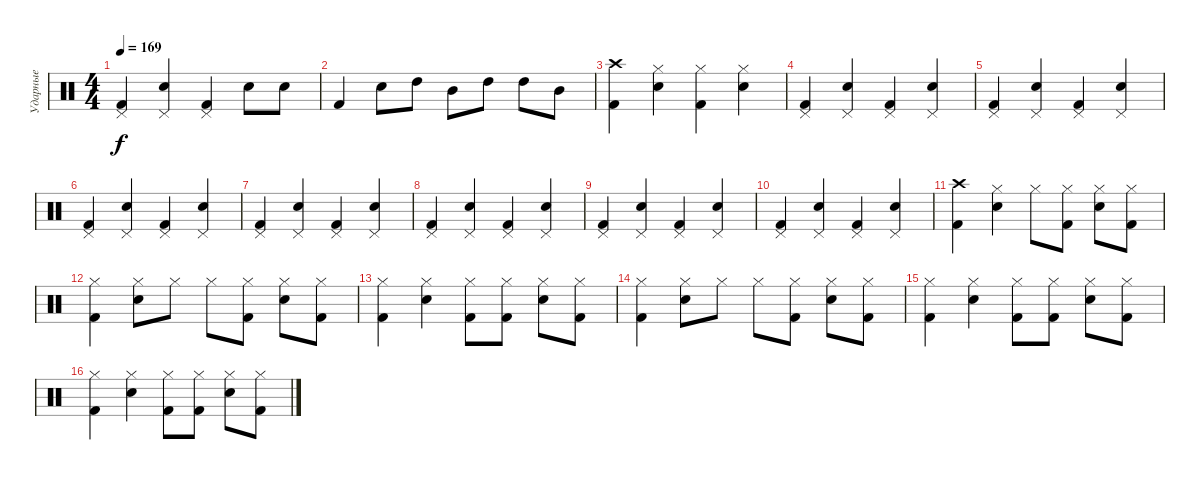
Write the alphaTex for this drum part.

\track ("Ударные" "Ударные") {instrument percussion}
\staff {score}
\articulation defaults
\ts (4 4)
\tempo 169
\clef neutral
\ks c
("Kick (hit) 2" "Pedal Hi-Hat (hit)").4{dy f} ("Electric Snare (hit)" "Pedal Hi-Hat (hit)").4 ("Kick (hit) 2" "Pedal Hi-Hat (hit)").4 "Electric Snare (hit)".8 "Electric Snare (hit)".8 |
"Kick (hit) 2".4 "Electric Snare (hit)".8 "High Tom (hit)".8 "Mid Tom (hit)".8 "High Tom (hit)".8 "High Tom (hit)".8 "Mid Tom (hit)".8 |
("Kick (hit) 2" "Crash high (hit)").4 ("Electric Snare (hit)" "Hi-Hat (closed)").4 ("Kick (hit) 2" "Hi-Hat (closed)").4 ("Electric Snare (hit)" "Hi-Hat (closed)").4 |
("Kick (hit) 2" "Pedal Hi-Hat (hit)").4 ("Electric Snare (hit)" "Pedal Hi-Hat (hit)").4 ("Kick (hit) 2" "Pedal Hi-Hat (hit)").4 ("Electric Snare (hit)" "Pedal Hi-Hat (hit)").4 |
("Kick (hit) 2" "Pedal Hi-Hat (hit)").4 ("Electric Snare (hit)" "Pedal Hi-Hat (hit)").4 ("Kick (hit) 2" "Pedal Hi-Hat (hit)").4 ("Electric Snare (hit)" "Pedal Hi-Hat (hit)").4 |
("Kick (hit) 2" "Pedal Hi-Hat (hit)").4 ("Electric Snare (hit)" "Pedal Hi-Hat (hit)").4 ("Kick (hit) 2" "Pedal Hi-Hat (hit)").4 ("Electric Snare (hit)" "Pedal Hi-Hat (hit)").4 |
("Kick (hit) 2" "Pedal Hi-Hat (hit)").4 ("Electric Snare (hit)" "Pedal Hi-Hat (hit)").4 ("Kick (hit) 2" "Pedal Hi-Hat (hit)").4 ("Electric Snare (hit)" "Pedal Hi-Hat (hit)").4 |
("Kick (hit) 2" "Pedal Hi-Hat (hit)").4 ("Electric Snare (hit)" "Pedal Hi-Hat (hit)").4 ("Kick (hit) 2" "Pedal Hi-Hat (hit)").4 ("Electric Snare (hit)" "Pedal Hi-Hat (hit)").4 |
("Kick (hit) 2" "Pedal Hi-Hat (hit)").4 ("Electric Snare (hit)" "Pedal Hi-Hat (hit)").4 ("Kick (hit) 2" "Pedal Hi-Hat (hit)").4 ("Electric Snare (hit)" "Pedal Hi-Hat (hit)").4 |
("Kick (hit) 2" "Pedal Hi-Hat (hit)").4 ("Electric Snare (hit)" "Pedal Hi-Hat (hit)").4 ("Kick (hit) 2" "Pedal Hi-Hat (hit)").4 ("Electric Snare (hit)" "Pedal Hi-Hat (hit)").4 |
("Kick (hit) 2" "Crash high (hit)").4 ("Electric Snare (hit)" "Hi-Hat (closed)").4 "Hi-Hat (closed)".8 ("Kick (hit) 2" "Hi-Hat (closed)").8 ("Electric Snare (hit)" "Hi-Hat (closed)").8 ("Kick (hit) 2" "Hi-Hat (closed)").8 |
("Kick (hit) 2" "Hi-Hat (closed)").4 ("Electric Snare (hit)" "Hi-Hat (closed)").8 "Hi-Hat (closed)".8 "Hi-Hat (closed)".8 ("Kick (hit) 2" "Hi-Hat (closed)").8 ("Electric Snare (hit)" "Hi-Hat (closed)").8 ("Kick (hit) 2" "Hi-Hat (closed)").8 |
("Kick (hit) 2" "Hi-Hat (closed)").4 ("Electric Snare (hit)" "Hi-Hat (closed)").4 ("Kick (hit) 2" "Hi-Hat (closed)").8 ("Kick (hit) 2" "Hi-Hat (closed)").8 ("Electric Snare (hit)" "Hi-Hat (closed)").8 ("Kick (hit) 2" "Hi-Hat (closed)").8 |
("Kick (hit) 2" "Hi-Hat (closed)").4 ("Electric Snare (hit)" "Hi-Hat (closed)").8 "Hi-Hat (closed)".8 "Hi-Hat (closed)".8 ("Kick (hit) 2" "Hi-Hat (closed)").8 ("Electric Snare (hit)" "Hi-Hat (closed)").8 ("Kick (hit) 2" "Hi-Hat (closed)").8 |
("Kick (hit) 2" "Hi-Hat (closed)").4 ("Electric Snare (hit)" "Hi-Hat (closed)").4 ("Kick (hit) 2" "Hi-Hat (closed)").8 ("Kick (hit) 2" "Hi-Hat (closed)").8 ("Electric Snare (hit)" "Hi-Hat (closed)").8 ("Kick (hit) 2" "Hi-Hat (closed)").8 |
("Kick (hit) 2" "Hi-Hat (closed)").4 ("Electric Snare (hit)" "Hi-Hat (closed)").4 ("Kick (hit) 2" "Hi-Hat (closed)").8 ("Kick (hit) 2" "Hi-Hat (closed)").8 ("Electric Snare (hit)" "Hi-Hat (closed)").8 ("Kick (hit) 2" "Hi-Hat (closed)").8
